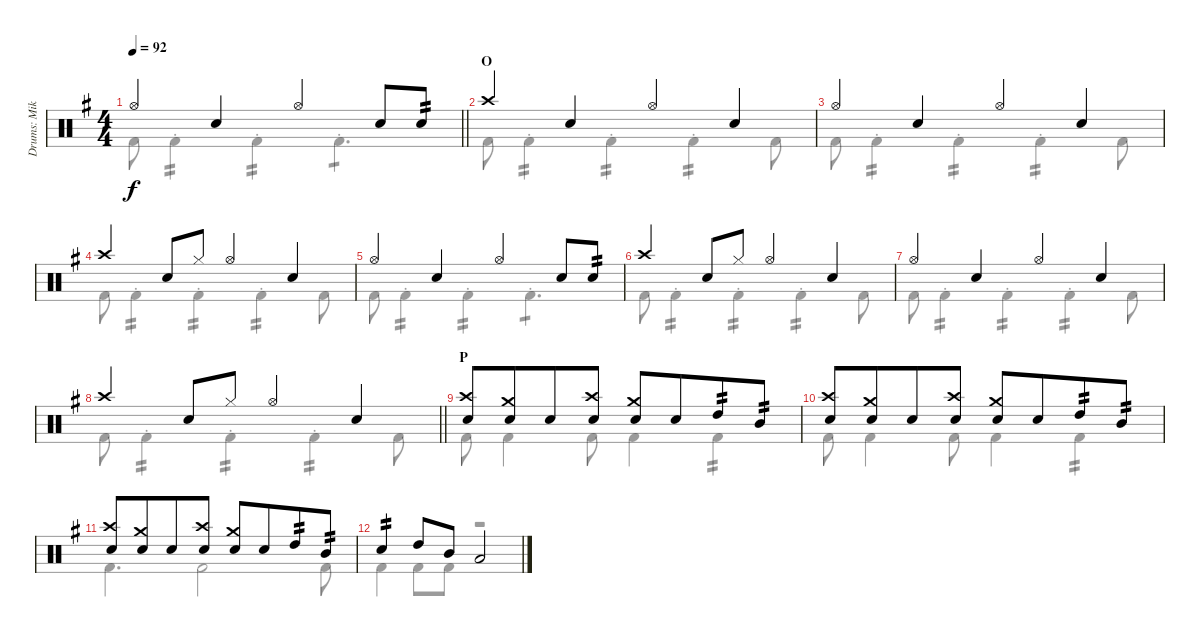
\track ("Drums: Mike" "Drums: Mik") {instrument percussion}
\staff {score}
\articulation defaults
\voice
\ts (4 4)
\tempo 92
\clef neutral
\barLineRight lightlight
\ks g "Hi-Hat (open)".4{dy f} "Snare (hit) 2".4 "Hi-Hat (open)".4{beam merge} "Snare (hit) 2".8 "Electric Snare (hit)".8{tp 2}
|
\section ("" "O")
"Crash high (hit)".4 "Snare (hit) 2".4 "Hi-Hat (open)".4{beam merge} "Snare (hit) 2".4 |
"Hi-Hat (open)".4 "Snare (hit) 2".4 "Hi-Hat (open)".4{beam merge} "Snare (hit) 2".4 |
"Crash high (hit)".4 "Snare (hit) 2".8 "Hi-Hat (closed)".8 "Hi-Hat (open)".4{beam merge} "Snare (hit) 2".4 |
"Hi-Hat (open)".4 "Snare (hit) 2".4 "Hi-Hat (open)".4{beam merge} "Snare (hit) 2".8 "Electric Snare (hit)".8{tp 2} |
"Crash high (hit)".4 "Snare (hit) 2".8 "Hi-Hat (closed)".8 "Hi-Hat (open)".4{beam merge} "Snare (hit) 2".4 |
"Hi-Hat (open)".4 "Snare (hit) 2".4 "Hi-Hat (open)".4{beam merge} "Snare (hit) 2".4 |
\barLineRight lightlight "Crash high (hit)".4 "Snare (hit) 2".8 "Hi-Hat (closed)".8 "Hi-Hat (open)".4{beam merge} "Snare (hit) 2".4
|
\section ("" "P")
("Crash high (hit)" "Snare (hit) 2").8 ("Crash medium (hit)" "Snare (hit) 2").8{beam merge} "Electric Snare (hit)".8 ("Crash high (hit)" "Snare (hit) 2").8 ("Crash medium (hit)" "Snare (hit) 2").8 "Electric Snare (hit)".8{beam merge} "High Tom (hit)".8{tp 2} "Mid Tom (hit)".8{tp 2} |
("Crash high (hit)" "Snare (hit) 2").8 ("Crash medium (hit)" "Snare (hit) 2").8{beam merge} "Electric Snare (hit)".8 ("Crash high (hit)" "Snare (hit) 2").8 ("Crash medium (hit)" "Snare (hit) 2").8 "Electric Snare (hit)".8{beam merge} "High Tom (hit)".8{tp 2} "Mid Tom (hit)".8{tp 2} |
("Crash high (hit)" "Snare (hit) 2").8 ("Crash medium (hit)" "Snare (hit) 2").8{beam merge} "Electric Snare (hit)".8 ("Crash high (hit)" "Snare (hit) 2").8 ("Crash medium (hit)" "Snare (hit) 2").8 "Electric Snare (hit)".8{beam merge} "High Tom (hit)".8{tp 2} "Mid Tom (hit)".8{tp 2} |
"Electric Snare (hit)".4{tp 2} "High Tom (hit)".8 "Mid Tom (hit)".8 "Low Tom (hit)".2
\voice
\clef neutral
\ottava regular
\simile none
\barLineRight lightlight
\ks g "Kick (hit) 2".8{dy f} "Kick (hit) 2"{st}.4{tp 2} "Kick (hit) 2"{st}.4{tp 2} "Kick (hit) 2"{st}.4{d tp 1}
|
"Kick (hit) 2".8 "Kick (hit) 2"{st}.4{tp 2} "Kick (hit) 2"{st}.4{tp 2} "Kick (hit) 2"{st}.4{tp 2} "Kick (hit) 2".8 |
"Kick (hit) 2".8 "Kick (hit) 2"{st}.4{tp 2} "Kick (hit) 2"{st}.4{tp 2} "Kick (hit) 2"{st}.4{tp 2} "Kick (hit) 2".8 |
"Kick (hit) 2".8 "Kick (hit) 2"{st}.4{tp 2} "Kick (hit) 2"{st}.4{tp 2} "Kick (hit) 2"{st}.4{tp 2} "Kick (hit) 2".8 |
"Kick (hit) 2".8 "Kick (hit) 2"{st}.4{tp 2} "Kick (hit) 2"{st}.4{tp 2} "Kick (hit) 2"{st}.4{d tp 1} |
"Kick (hit) 2".8 "Kick (hit) 2"{st}.4{tp 2} "Kick (hit) 2"{st}.4{tp 2} "Kick (hit) 2"{st}.4{tp 2} "Kick (hit) 2".8 |
"Kick (hit) 2".8 "Kick (hit) 2"{st}.4{tp 2} "Kick (hit) 2"{st}.4{tp 2} "Kick (hit) 2"{st}.4{tp 2} "Kick (hit) 2".8 |
\barLineRight lightlight "Kick (hit) 2".8 "Kick (hit) 2"{st}.4{tp 2} "Kick (hit) 2"{st}.4{tp 2} "Kick (hit) 2"{st}.4{tp 2} "Kick (hit) 2".8
|
"Kick (hit) 2".8 "Kick (hit) 2".4 "Kick (hit) 2".8 "Kick (hit) 2".4 "Kick (hit) 2".4{tp 2} |
"Kick (hit) 2".8 "Kick (hit) 2".4 "Kick (hit) 2".8 "Kick (hit) 2".4 "Kick (hit) 2".4{tp 2} |
"Kick (hit) 2".4{d} "Kick (hit) 2".2 "Kick (hit) 2".8 |
"Kick (hit) 2".4 "Kick (hit) 2".8 "Kick (hit) 2".8 r.2
